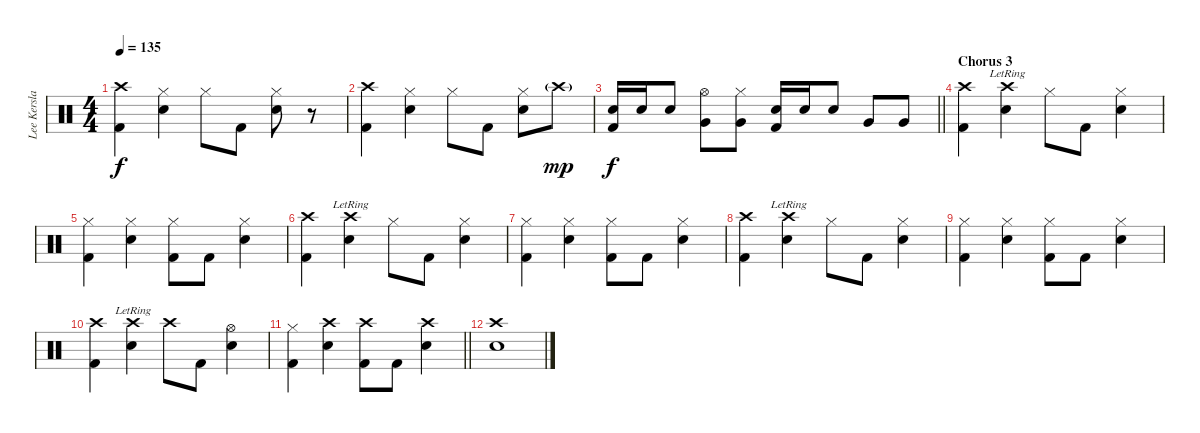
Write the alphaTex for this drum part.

\track ("Lee Kerslake" "Lee Kersla") {instrument percussion}
\staff {score}
\articulation defaults
\ts (4 4)
\tempo 135
\clef neutral
\ks c
("Crash high (hit)" "Kick (hit) 2").4{dy f} ("Hi-Hat (closed)" "Electric Snare (hit)").4 "Hi-Hat (closed)".8 "Kick (hit) 2".8 ("Hi-Hat (closed)" "Electric Snare (hit)").8 r.8 |
("Crash high (hit)" "Kick (hit) 2").4 ("Hi-Hat (closed)" "Electric Snare (hit)").4 "Hi-Hat (closed)".8 "Kick (hit) 2".8 ("Hi-Hat (closed)" "Electric Snare (hit)").8 "Crash high (hit)"{g}.8{dy mp} |
\barLineRight lightlight
("Electric Snare (hit)" "Kick (hit) 2").16{dy f} "Electric Snare (hit)".16 "Electric Snare (hit)".8 ("Very Low Tom (hit)" "Hi-Hat (open)").8 ("Very Low Tom (hit)" "Hi-Hat (closed)").8 ("Electric Snare (hit)" "Kick (hit) 2").16 "Electric Snare (hit)".16 "Electric Snare (hit)".8 "Very Low Tom (hit)".8 "Very Low Tom (hit)".8 |
\section ("" "Chorus 3")
("Crash high (hit)" "Kick (hit) 2").4 ("Crash high (hit)"{lr} "Electric Snare (hit)").4 "Hi-Hat (closed)".8 "Kick (hit) 2".8 ("Hi-Hat (closed)" "Electric Snare (hit)").4 |
("Hi-Hat (closed)" "Kick (hit) 2").4 ("Hi-Hat (closed)" "Electric Snare (hit)").4 ("Hi-Hat (closed)" "Kick (hit) 2").8 "Kick (hit) 2".8 ("Hi-Hat (closed)" "Electric Snare (hit)").4 |
("Crash high (hit)" "Kick (hit) 2").4 ("Crash high (hit)"{lr} "Electric Snare (hit)").4 "Hi-Hat (closed)".8 "Kick (hit) 2".8 ("Hi-Hat (closed)" "Electric Snare (hit)").4 |
("Hi-Hat (closed)" "Kick (hit) 2").4 ("Hi-Hat (closed)" "Electric Snare (hit)").4 ("Hi-Hat (closed)" "Kick (hit) 2").8 "Kick (hit) 2".8 ("Hi-Hat (closed)" "Electric Snare (hit)").4 |
("Crash high (hit)" "Kick (hit) 2").4 ("Crash high (hit)"{lr} "Electric Snare (hit)").4 "Hi-Hat (closed)".8 "Kick (hit) 2".8 ("Hi-Hat (closed)" "Electric Snare (hit)").4 |
("Hi-Hat (closed)" "Kick (hit) 2").4 ("Hi-Hat (closed)" "Electric Snare (hit)").4 ("Hi-Hat (closed)" "Kick (hit) 2").8 "Kick (hit) 2".8 ("Hi-Hat (closed)" "Electric Snare (hit)").4 |
("Crash high (hit)" "Kick (hit) 2").4 ("Crash high (hit)"{lr} "Electric Snare (hit)").4 "Crash high (hit)".8 "Kick (hit) 2".8 ("Hi-Hat (open)" "Electric Snare (hit)").4 |
\barLineRight lightlight
("Hi-Hat (closed)" "Kick (hit) 2").4 ("Crash high (hit)" "Electric Snare (hit)").4 ("Crash high (hit)" "Kick (hit) 2").8 "Kick (hit) 2".8 ("Crash high (hit)" "Electric Snare (hit)").4 |
("Crash high (hit)" "Snare (hit) 2").1
